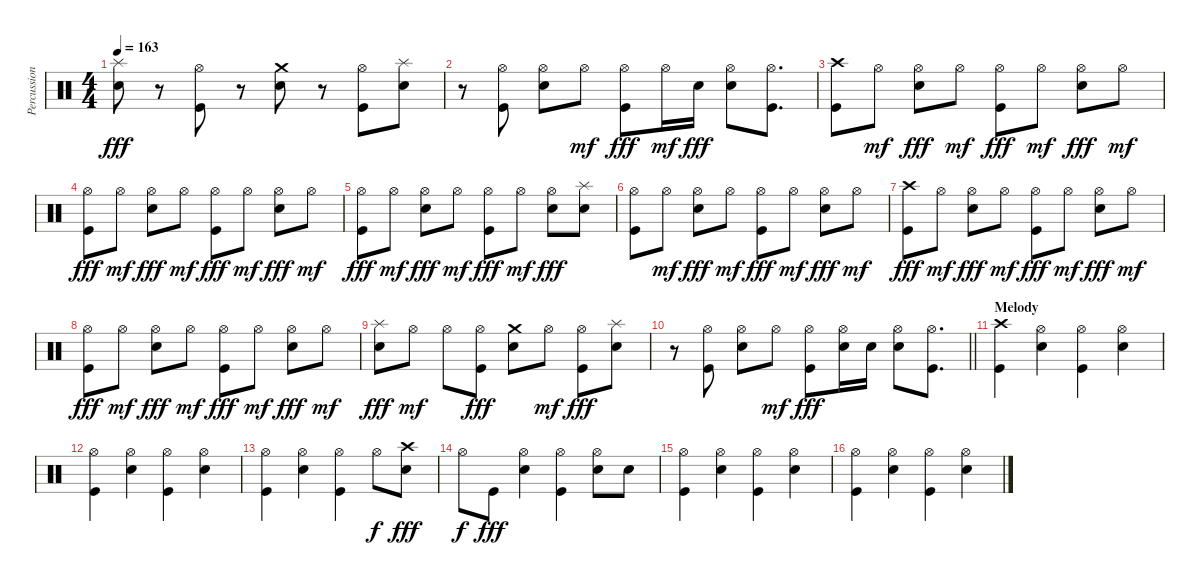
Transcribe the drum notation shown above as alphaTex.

\track ("Percussion/Nicko McBrain" "Percussion") {instrument percussion}
\staff {score}
\articulation defaults
\ts (4 4)
\tempo 163
\clef neutral
\ks c
("Splash (hit)" "Electric Snare (hit)").8{dy fff} r.8 ("Hi-Hat (open)" "Kick (hit)").8 r.8 ("Crash medium (hit)" "Electric Snare (hit)").8 r.8 ("Hi-Hat (open)" "Kick (hit)").8 ("Splash (hit)" "Electric Snare (hit)").8 |
r.8 ("Hi-Hat (open)" "Kick (hit)").8 ("Hi-Hat (open)" "Electric Snare (hit)").8 "Hi-Hat (open)".8{dy mf} ("Hi-Hat (open)" "Kick (hit)").8{dy fff} "Hi-Hat (open)".16{dy mf} "Electric Snare (hit)".16{dy fff} ("Hi-Hat (open)" "Electric Snare (hit)").8 ("Hi-Hat (open)" "Kick (hit)").8{d} |
("Crash high (hit)" "Kick (hit)").8 "Hi-Hat (open)".8{dy mf} ("Hi-Hat (open)" "Electric Snare (hit)").8{dy fff} "Hi-Hat (open)".8{dy mf} ("Hi-Hat (open)" "Kick (hit)").8{dy fff} "Hi-Hat (open)".8{dy mf} ("Hi-Hat (open)" "Electric Snare (hit)").8{dy fff} "Hi-Hat (open)".8{dy mf} |
("Hi-Hat (open)" "Kick (hit)").8{dy fff} "Hi-Hat (open)".8{dy mf} ("Hi-Hat (open)" "Electric Snare (hit)").8{dy fff} "Hi-Hat (open)".8{dy mf} ("Hi-Hat (open)" "Kick (hit)").8{dy fff} "Hi-Hat (open)".8{dy mf} ("Hi-Hat (open)" "Electric Snare (hit)").8{dy fff} "Hi-Hat (open)".8{dy mf} |
("Hi-Hat (open)" "Kick (hit)").8{dy fff} "Hi-Hat (open)".8{dy mf} ("Hi-Hat (open)" "Electric Snare (hit)").8{dy fff} "Hi-Hat (open)".8{dy mf} ("Hi-Hat (open)" "Kick (hit)").8{dy fff} "Hi-Hat (open)".8{dy mf} ("Hi-Hat (open)" "Electric Snare (hit)").8{dy fff} ("Splash (hit)" "Electric Snare (hit)").8 |
("Hi-Hat (open)" "Kick (hit)").8 "Hi-Hat (open)".8{dy mf} ("Hi-Hat (open)" "Electric Snare (hit)").8{dy fff} "Hi-Hat (open)".8{dy mf} ("Hi-Hat (open)" "Kick (hit)").8{dy fff} "Hi-Hat (open)".8{dy mf} ("Hi-Hat (open)" "Electric Snare (hit)").8{dy fff} "Hi-Hat (open)".8{dy mf} |
("Crash high (hit)" "Kick (hit)").8{dy fff} "Hi-Hat (open)".8{dy mf} ("Hi-Hat (open)" "Electric Snare (hit)").8{dy fff} "Hi-Hat (open)".8{dy mf} ("Hi-Hat (open)" "Kick (hit)").8{dy fff} "Hi-Hat (open)".8{dy mf} ("Hi-Hat (open)" "Electric Snare (hit)").8{dy fff} "Hi-Hat (open)".8{dy mf} |
("Hi-Hat (open)" "Kick (hit)").8{dy fff} "Hi-Hat (open)".8{dy mf} ("Hi-Hat (open)" "Electric Snare (hit)").8{dy fff} "Hi-Hat (open)".8{dy mf} ("Hi-Hat (open)" "Kick (hit)").8{dy fff} "Hi-Hat (open)".8{dy mf} ("Hi-Hat (open)" "Electric Snare (hit)").8{dy fff} "Hi-Hat (open)".8{dy mf} |
("Splash (hit)" "Electric Snare (hit)").8{dy fff} "Hi-Hat (open)".8{dy mf} "Hi-Hat (open)".8 ("Hi-Hat (open)" "Kick (hit)").8{dy fff} ("Crash medium (hit)" "Electric Snare (hit)").8 "Hi-Hat (open)".8{dy mf} ("Hi-Hat (open)" "Kick (hit)").8{dy fff} ("Splash (hit)" "Electric Snare (hit)").8 |
\barLineRight lightlight
r.8 ("Hi-Hat (open)" "Kick (hit)").8 ("Hi-Hat (open)" "Electric Snare (hit)").8 "Hi-Hat (open)".8{dy mf} ("Hi-Hat (open)" "Kick (hit)").8{dy fff} ("Hi-Hat (open)" "Electric Snare (hit)").16 "Electric Snare (hit)".16 ("Hi-Hat (open)" "Electric Snare (hit)").8 ("Hi-Hat (open)" "Kick (hit)").8{d} |
\section ("" "Melody")
("Crash high (hit)" "Kick (hit)").4 ("Hi-Hat (open)" "Electric Snare (hit)").4 ("Hi-Hat (open)" "Kick (hit)").4 ("Hi-Hat (open)" "Electric Snare (hit)").4 |
("Hi-Hat (open)" "Kick (hit)").4 ("Hi-Hat (open)" "Electric Snare (hit)").4 ("Hi-Hat (open)" "Kick (hit)").4 ("Hi-Hat (open)" "Electric Snare (hit)").4 |
("Hi-Hat (open)" "Kick (hit)").4 ("Hi-Hat (open)" "Electric Snare (hit)").4 ("Hi-Hat (open)" "Kick (hit)").4 "Hi-Hat (open)".8{dy f} ("Crash high (hit)" "Electric Snare (hit)").8{dy fff} |
"Hi-Hat (open)".8{dy f} "Kick (hit)".8{dy fff} ("Hi-Hat (open)" "Electric Snare (hit)").4 ("Hi-Hat (open)" "Kick (hit)").4 ("Hi-Hat (open)" "Electric Snare (hit)").8 "Electric Snare (hit)".8 |
("Hi-Hat (open)" "Kick (hit)").4 ("Hi-Hat (open)" "Electric Snare (hit)").4 ("Hi-Hat (open)" "Kick (hit)").4 ("Hi-Hat (open)" "Electric Snare (hit)").4 |
("Hi-Hat (open)" "Kick (hit)").4 ("Hi-Hat (open)" "Electric Snare (hit)").4 ("Hi-Hat (open)" "Kick (hit)").4 ("Hi-Hat (open)" "Electric Snare (hit)").4
